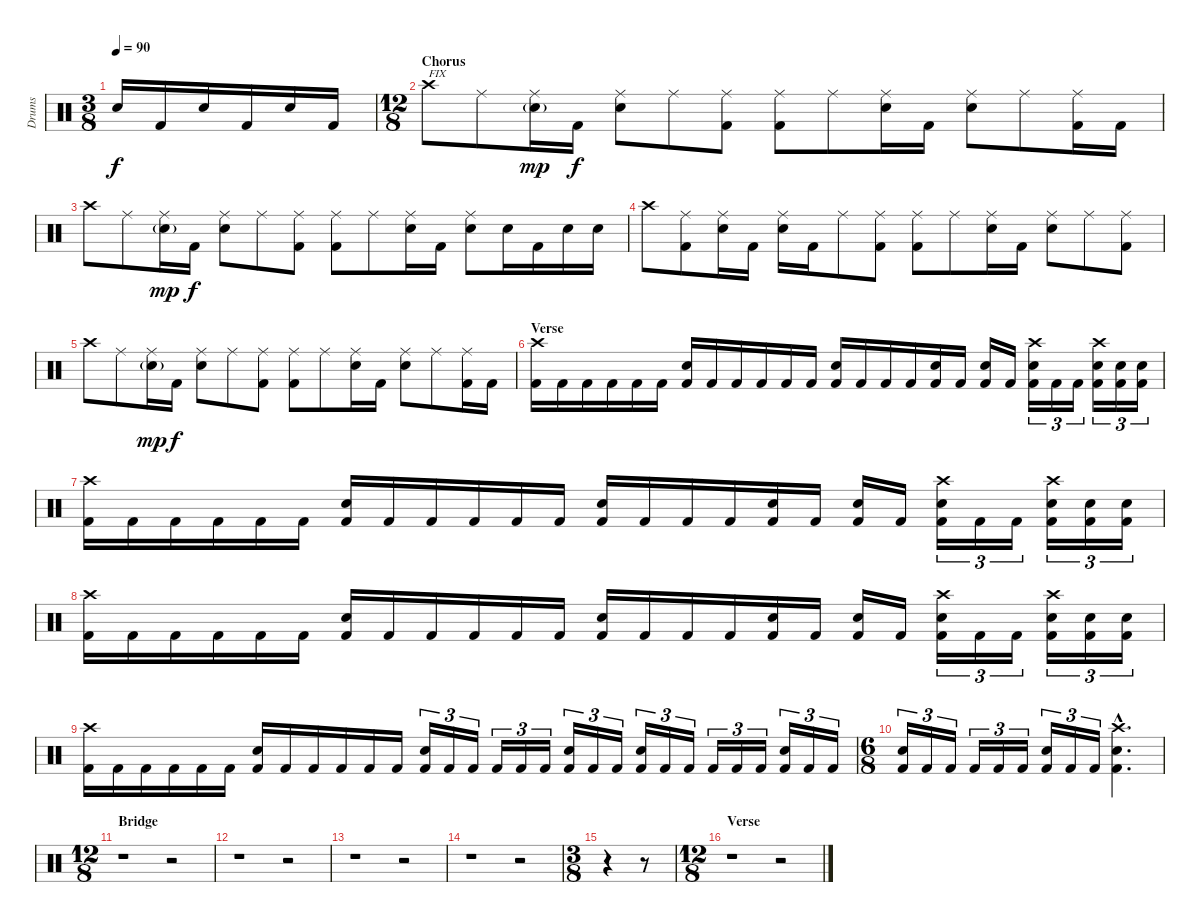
\track ("Drums" "Drums") {instrument percussion}
\staff {score}
\articulation defaults
\ts (3 8)
\tempo 90
\clef neutral
\ks c "Electric Snare (hit)".16{dy f} "Kick (hit) 2".16 "Electric Snare (hit)".16 "Kick (hit) 2".16 "Electric Snare (hit)".16 "Kick (hit) 2".16
|
\ts (12 8)
\section ("" "Chorus")
"Crash high (hit)".8{txt "FIX"} "Ride (middle)".8 ("Ride (middle)" "Electric Snare (hit)"{g}).16{dy mp} "Kick (hit) 2".16{dy f} ("Ride (middle)" "Electric Snare (hit)").8 "Ride (middle)".8 ("Ride (middle)" "Kick (hit) 2").8 ("Ride (middle)" "Kick (hit) 2").8 "Ride (middle)".8 ("Ride (middle)" "Electric Snare (hit)").16 "Kick (hit) 2".16 ("Ride (middle)" "Electric Snare (hit)").8 "Ride (middle)".8 ("Ride (middle)" "Kick (hit) 2").16 "Kick (hit) 2".16 |
"Crash high (hit)".8 "Ride (middle)".8 ("Ride (middle)" "Electric Snare (hit)"{g}).16{dy mp} "Kick (hit) 2".16{dy f} ("Ride (middle)" "Electric Snare (hit)").8 "Ride (middle)".8 ("Ride (middle)" "Kick (hit) 2").8 ("Ride (middle)" "Kick (hit) 2").8 "Ride (middle)".8 ("Ride (middle)" "Electric Snare (hit)").16 "Kick (hit) 2".16 ("Ride (middle)" "Electric Snare (hit)").8 "Electric Snare (hit)".16 "Kick (hit) 2".16 "Electric Snare (hit)".16 "Electric Snare (hit)".16 |
"Crash high (hit)".8 ("Ride (middle)" "Kick (hit) 2").8 ("Ride (middle)" "Electric Snare (hit)").16 "Kick (hit) 2".16 ("Ride (middle)" "Electric Snare (hit)").16 "Kick (hit) 2".16 "Ride (middle)".8 ("Ride (middle)" "Kick (hit) 2").8 ("Ride (middle)" "Kick (hit) 2").8 "Ride (middle)".8 ("Ride (middle)" "Electric Snare (hit)").16 "Kick (hit) 2".16 ("Ride (middle)" "Electric Snare (hit)").8 "Ride (middle)".8 ("Ride (middle)" "Kick (hit) 2").8 |
"Crash high (hit)".8 "Ride (middle)".8 ("Ride (middle)" "Electric Snare (hit)"{g}).16{dy mp} "Kick (hit) 2".16{dy f} ("Ride (middle)" "Electric Snare (hit)").8 "Ride (middle)".8 ("Ride (middle)" "Kick (hit) 2").8 ("Ride (middle)" "Kick (hit) 2").8 "Ride (middle)".8 ("Ride (middle)" "Electric Snare (hit)").16 "Kick (hit) 2".16 ("Ride (middle)" "Electric Snare (hit)").8 "Ride (middle)".8 ("Ride (middle)" "Kick (hit) 2").16 "Kick (hit) 2".16 |
\section ("" "Verse")
("Crash high (hit)" "Kick (hit) 2").16 "Kick (hit) 2".16 "Kick (hit) 2".16 "Kick (hit) 2".16 "Kick (hit) 2".16 "Kick (hit) 2".16 ("Electric Snare (hit)" "Kick (hit) 2").16 "Kick (hit) 2".16 "Kick (hit) 2".16 "Kick (hit) 2".16 "Kick (hit) 2".16 "Kick (hit) 2".16 ("Electric Snare (hit)" "Kick (hit) 2").16 "Kick (hit) 2".16 "Kick (hit) 2".16 "Kick (hit) 2".16 ("Electric Snare (hit)" "Kick (hit) 2").16 "Kick (hit) 2".16 ("Electric Snare (hit)" "Kick (hit) 2").16 "Kick (hit) 2".16 ("Crash high (hit)" "Electric Snare (hit)" "Kick (hit) 2").16{tu (3 2)} "Kick (hit) 2".16{tu (3 2)} "Kick (hit) 2".16{tu (3 2)} ("Crash high (hit)" "Electric Snare (hit)" "Kick (hit) 2").16{tu (3 2)} ("Electric Snare (hit)" "Kick (hit) 2").16{tu (3 2)} ("Electric Snare (hit)" "Kick (hit) 2").16{tu (3 2)} |
("Crash high (hit)" "Kick (hit) 2").16 "Kick (hit) 2".16 "Kick (hit) 2".16 "Kick (hit) 2".16 "Kick (hit) 2".16 "Kick (hit) 2".16 ("Electric Snare (hit)" "Kick (hit) 2").16 "Kick (hit) 2".16 "Kick (hit) 2".16 "Kick (hit) 2".16 "Kick (hit) 2".16 "Kick (hit) 2".16 ("Electric Snare (hit)" "Kick (hit) 2").16 "Kick (hit) 2".16 "Kick (hit) 2".16 "Kick (hit) 2".16 ("Electric Snare (hit)" "Kick (hit) 2").16 "Kick (hit) 2".16 ("Electric Snare (hit)" "Kick (hit) 2").16 "Kick (hit) 2".16 ("Crash high (hit)" "Electric Snare (hit)" "Kick (hit) 2").16{tu (3 2)} "Kick (hit) 2".16{tu (3 2)} "Kick (hit) 2".16{tu (3 2)} ("Crash high (hit)" "Electric Snare (hit)" "Kick (hit) 2").16{tu (3 2)} ("Electric Snare (hit)" "Kick (hit) 2").16{tu (3 2)} ("Electric Snare (hit)" "Kick (hit) 2").16{tu (3 2)} |
("Crash high (hit)" "Kick (hit) 2").16 "Kick (hit) 2".16 "Kick (hit) 2".16 "Kick (hit) 2".16 "Kick (hit) 2".16 "Kick (hit) 2".16 ("Electric Snare (hit)" "Kick (hit) 2").16 "Kick (hit) 2".16 "Kick (hit) 2".16 "Kick (hit) 2".16 "Kick (hit) 2".16 "Kick (hit) 2".16 ("Electric Snare (hit)" "Kick (hit) 2").16 "Kick (hit) 2".16 "Kick (hit) 2".16 "Kick (hit) 2".16 ("Electric Snare (hit)" "Kick (hit) 2").16 "Kick (hit) 2".16 ("Electric Snare (hit)" "Kick (hit) 2").16 "Kick (hit) 2".16 ("Crash high (hit)" "Electric Snare (hit)" "Kick (hit) 2").16{tu (3 2)} "Kick (hit) 2".16{tu (3 2)} "Kick (hit) 2".16{tu (3 2)} ("Crash high (hit)" "Electric Snare (hit)" "Kick (hit) 2").16{tu (3 2)} ("Electric Snare (hit)" "Kick (hit) 2").16{tu (3 2)} ("Electric Snare (hit)" "Kick (hit) 2").16{tu (3 2)} |
("Crash high (hit)" "Kick (hit) 2").16 "Kick (hit) 2".16 "Kick (hit) 2".16 "Kick (hit) 2".16 "Kick (hit) 2".16 "Kick (hit) 2".16 ("Electric Snare (hit)" "Kick (hit) 2").16 "Kick (hit) 2".16 "Kick (hit) 2".16 "Kick (hit) 2".16 "Kick (hit) 2".16 "Kick (hit) 2".16 ("Electric Snare (hit)" "Kick (hit) 2").16{tu (3 2)} "Kick (hit) 2".16{tu (3 2)} "Kick (hit) 2".16{tu (3 2)} "Kick (hit) 2".16{tu (3 2)} "Kick (hit) 2".16{tu (3 2)} "Kick (hit) 2".16{tu (3 2)} ("Electric Snare (hit)" "Kick (hit) 2").16{tu (3 2)} "Kick (hit) 2".16{tu (3 2)} "Kick (hit) 2".16{tu (3 2)} ("Electric Snare (hit)" "Kick (hit) 2").16{tu (3 2)} "Kick (hit) 2".16{tu (3 2)} "Kick (hit) 2".16{tu (3 2)} "Kick (hit) 2".16{tu (3 2)} "Kick (hit) 2".16{tu (3 2)} "Kick (hit) 2".16{tu (3 2)} ("Electric Snare (hit)" "Kick (hit) 2").16{tu (3 2)} "Kick (hit) 2".16{tu (3 2)} "Kick (hit) 2".16{tu (3 2)} |
\ts (6 8)
("Electric Snare (hit)" "Kick (hit) 2").16{tu (3 2)} "Kick (hit) 2".16{tu (3 2)} "Kick (hit) 2".16{tu (3 2)} "Kick (hit) 2".16{tu (3 2)} "Kick (hit) 2".16{tu (3 2)} "Kick (hit) 2".16{tu (3 2)} ("Electric Snare (hit)" "Kick (hit) 2").16{tu (3 2)} "Kick (hit) 2".16{tu (3 2)} "Kick (hit) 2".16{tu (3 2)} ("Crash high (hit)"{hac} "Electric Snare (hit)"{hac} "Kick (hit) 2"{hac}).4{d} |
\ts (12 8)
\section ("" "Bridge")
r.1 r.2 |
r.1 r.2 |
r.1 r.2 |
r.1 r.2 |
\ts (3 8)
r.4 r.8 |
\ts (12 8)
\section ("" "Verse")
r.1 r.2
